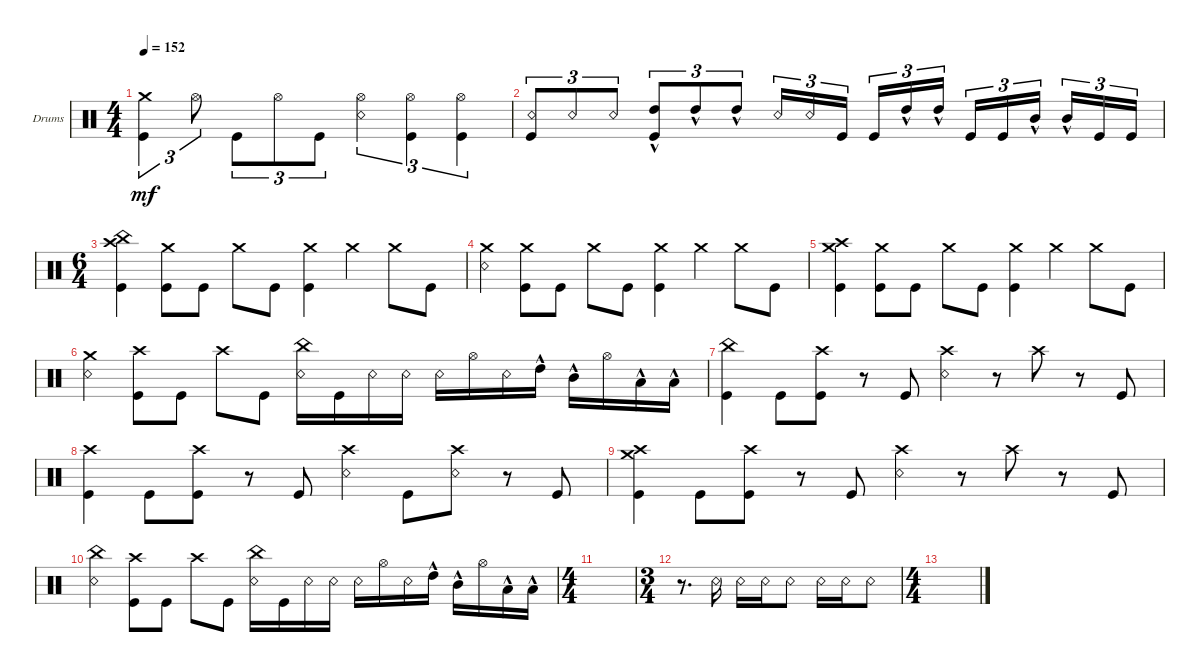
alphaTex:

\defaultSystemsLayout 4
\bracketExtendMode groupsimilarinstruments
\firstSystemTrackNameOrientation horizontal
\otherSystemsTrackNameOrientation horizontal
\track ("Drumkit" "Drums") {instrument percussion}
\staff {score}
\articulation defaults
\ts (4 4)
\tempo 152
\clef neutral
\ks c
("Kick (hit)" "Crash medium (hit)").4{tu (3 2) dy mf} "Hi-Hat (open)".8{tu (3 2)} "Kick (hit)".8{tu (3 2)} "Hi-Hat (open)".8{tu (3 2)} "Kick (hit)".8{tu (3 2)} ("Hi-Hat (open)" "Snare (rim shot)").4{tu (3 2)} ("Kick (hit)" "Hi-Hat (open)").4{tu (3 2)} ("Kick (hit)" "Hi-Hat (open)").4{tu (3 2)} |
("Kick (hit)" "Snare (rim shot)").8{tu (3 2)} "Snare (rim shot)".8{tu (3 2)} "Snare (rim shot)".8{tu (3 2)} ("High Tom (hit)"{hac} "Kick (hit)").8{tu (3 2)} "High Tom (hit)"{hac}.8{tu (3 2)} "High Tom (hit)"{hac}.8{tu (3 2)} "Snare (rim shot)".16{tu (3 2)} "Snare (rim shot)".16{tu (3 2)} "Kick (hit)".16{tu (3 2)} "Kick (hit)".16{tu (3 2)} "High Tom (hit)"{hac}.16{tu (3 2)} "High Tom (hit)"{hac}.16{tu (3 2)} "Kick (hit)".16{tu (3 2)} "Kick (hit)".16{tu (3 2)} "Mid Tom (hit)"{hac}.16{tu (3 2)} "Mid Tom (hit)"{hac}.16{tu (3 2)} "Kick (hit)".16{tu (3 2)} "Kick (hit)".16{tu (3 2)} |
\ts (6 4)
("Kick (hit)" "China (hit)" "Crash high (hit)").4 ("Kick (hit)" "Crash medium (hit)").8 "Kick (hit)".8 "Crash medium (hit)".8 "Kick (hit)".8 ("Kick (hit)" "Crash medium (hit)").4 "Crash medium (hit)".4 "Crash medium (hit)".8 "Kick (hit)".8 |
("Crash medium (hit)" "Snare (rim shot)").4 ("Kick (hit)" "Crash medium (hit)").8 "Kick (hit)".8 "Crash medium (hit)".8 "Kick (hit)".8 ("Kick (hit)" "Crash medium (hit)").4 "Crash medium (hit)".4 "Crash medium (hit)".8 "Kick (hit)".8 |
("Kick (hit)" "Crash high (hit)" "Crash medium (hit)").4 ("Kick (hit)" "Crash medium (hit)").8 "Kick (hit)".8 "Crash medium (hit)".8 "Kick (hit)".8 ("Kick (hit)" "Crash medium (hit)").4 "Crash medium (hit)".4 "Crash medium (hit)".8 "Kick (hit)".8 |
("Crash medium (hit)" "Snare (rim shot)").4 ("Kick (hit)" "Crash high (hit)").8 "Kick (hit)".8 "Crash high (hit)".8 "Kick (hit)".8 ("China (hit)" "Snare (rim shot)").16 "Kick (hit)".16 "Snare (rim shot)".16 "Snare (rim shot)".16 "Snare (rim shot)".16 "Hi-Hat (open)".16 "Snare (rim shot)".16 "High Tom (hit)"{hac}.16 "Mid Tom (hit)"{hac}.16 "Hi-Hat (open)".16 "Low Tom (hit)"{hac}.16 "Low Tom (hit)"{hac}.16 |
("Kick (hit)" "China (hit)").4 "Kick (hit)".8 ("Kick (hit)" "Crash high (hit)").8 r.8 "Kick (hit)".8 ("Snare (rim shot)" "Crash high (hit)").4 r.8 "Crash high (hit)".8 r.8 "Kick (hit)".8 |
("Kick (hit)" "Crash high (hit)").4 "Kick (hit)".8 ("Kick (hit)" "Crash high (hit)").8 r.8 "Kick (hit)".8 ("Snare (rim shot)" "Crash high (hit)").4 "Kick (hit)".8 ("Snare (rim shot)" "Crash high (hit)").8 r.8 "Kick (hit)".8 |
("Kick (hit)" "Crash medium (hit)" "Crash high (hit)").4 "Kick (hit)".8 ("Kick (hit)" "Crash high (hit)").8 r.8 "Kick (hit)".8 ("Snare (rim shot)" "Crash high (hit)").4 r.8 "Crash high (hit)".8 r.8 "Kick (hit)".8 |
("Snare (rim shot)" "China (hit)").4 ("Kick (hit)" "Crash high (hit)").8 "Kick (hit)".8 "Crash high (hit)".8 "Kick (hit)".8 ("China (hit)" "Snare (rim shot)").16 "Kick (hit)".16 "Snare (rim shot)".16 "Snare (rim shot)".16 "Snare (rim shot)".16 "Hi-Hat (open)".16 "Snare (rim shot)".16 "High Tom (hit)"{hac}.16 "Mid Tom (hit)"{hac}.16 "Hi-Hat (open)".16 "Low Tom (hit)"{hac}.16 "Low Tom (hit)"{hac}.16 |
\ts (4 4)
|
\ts (3 4)
r.8{d} "Snare (rim shot)".16 "Snare (rim shot)".16 "Snare (rim shot)".16 "Snare (rim shot)".8 "Snare (rim shot)".16 "Snare (rim shot)".16 "Snare (rim shot)".8 |
\ts (4 4)
